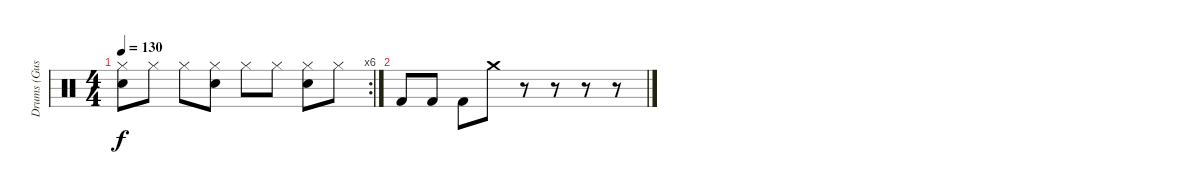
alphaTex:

\track ("Drums (Gustav) " "Drums (Gus") {instrument percussion}
\staff {score}
\articulation defaults
\rc 6
\ts (4 4)
\tempo 130
\clef neutral
\ks c
("Snare (hit) 2" "Hi-Hat (closed)").8{dy f} "Hi-Hat (closed)".8 "Hi-Hat (closed)".8 ("Snare (hit) 2" "Hi-Hat (closed)").8 "Hi-Hat (closed)".8 "Hi-Hat (closed)".8 ("Snare (hit) 2" "Hi-Hat (closed)").8 "Hi-Hat (closed)".8 |
"Kick (hit) 2".8 "Kick (hit) 2".8 "Kick (hit) 2".8 "Crash medium (hit)".8 r.8 r.8 r.8 r.8
